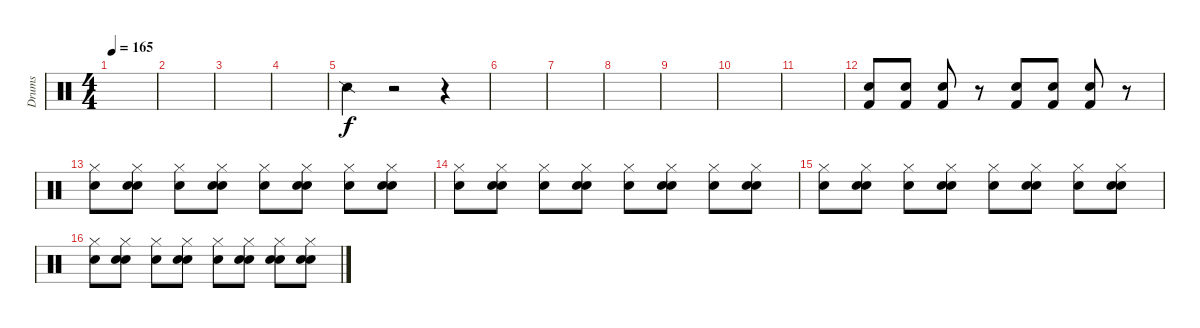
\track ("Drums" "Drums") {instrument percussion}
\staff {score}
\articulation defaults
\ts (4 4)
\tempo 165
\clef neutral
\ks c
|
|
|
|
"Snare (side stick) 2".4 r.2 r.4 |
|
|
|
|
|
|
("Kick (hit) 2" "Snare (hit) 2").8 ("Kick (hit) 2" "Snare (hit) 2").8 ("Kick (hit) 2" "Snare (hit) 2").8 r.8 ("Kick (hit) 2" "Snare (hit) 2").8 ("Kick (hit) 2" "Snare (hit) 2").8 ("Kick (hit) 2" "Snare (hit) 2").8 r.8 |
("Hi-Hat (closed)" "Electric Snare (hit)").8 ("Snare (hit) 2" "Electric Snare (hit)" "Hi-Hat (closed)").8 ("Hi-Hat (closed)" "Electric Snare (hit)").8 ("Snare (hit) 2" "Hi-Hat (closed)" "Electric Snare (hit)").8 ("Hi-Hat (closed)" "Electric Snare (hit)").8 ("Snare (hit) 2" "Hi-Hat (closed)" "Electric Snare (hit)").8 ("Hi-Hat (closed)" "Electric Snare (hit)").8 ("Snare (hit) 2" "Hi-Hat (closed)" "Electric Snare (hit)").8 |
("Hi-Hat (closed)" "Electric Snare (hit)").8 ("Snare (hit) 2" "Electric Snare (hit)" "Hi-Hat (closed)").8 ("Hi-Hat (closed)" "Electric Snare (hit)").8 ("Snare (hit) 2" "Hi-Hat (closed)" "Electric Snare (hit)").8 ("Hi-Hat (closed)" "Electric Snare (hit)").8 ("Snare (hit) 2" "Hi-Hat (closed)" "Electric Snare (hit)").8 ("Hi-Hat (closed)" "Electric Snare (hit)").8 ("Snare (hit) 2" "Hi-Hat (closed)" "Electric Snare (hit)").8 |
("Hi-Hat (closed)" "Electric Snare (hit)").8 ("Snare (hit) 2" "Electric Snare (hit)" "Hi-Hat (closed)").8 ("Hi-Hat (closed)" "Electric Snare (hit)").8 ("Snare (hit) 2" "Hi-Hat (closed)" "Electric Snare (hit)").8 ("Hi-Hat (closed)" "Electric Snare (hit)").8 ("Snare (hit) 2" "Hi-Hat (closed)" "Electric Snare (hit)").8 ("Hi-Hat (closed)" "Electric Snare (hit)").8 ("Snare (hit) 2" "Hi-Hat (closed)" "Electric Snare (hit)").8 |
("Hi-Hat (closed)" "Electric Snare (hit)").8 ("Snare (hit) 2" "Electric Snare (hit)" "Hi-Hat (closed)").8 ("Hi-Hat (closed)" "Electric Snare (hit)").8 ("Snare (hit) 2" "Hi-Hat (closed)" "Electric Snare (hit)").8 ("Hi-Hat (closed)" "Electric Snare (hit)").8 ("Snare (hit) 2" "Hi-Hat (closed)" "Electric Snare (hit)").8 ("Snare (hit) 2" "Hi-Hat (closed)" "Electric Snare (hit)").8 ("Snare (hit) 2" "Hi-Hat (closed)" "Electric Snare (hit)").8
